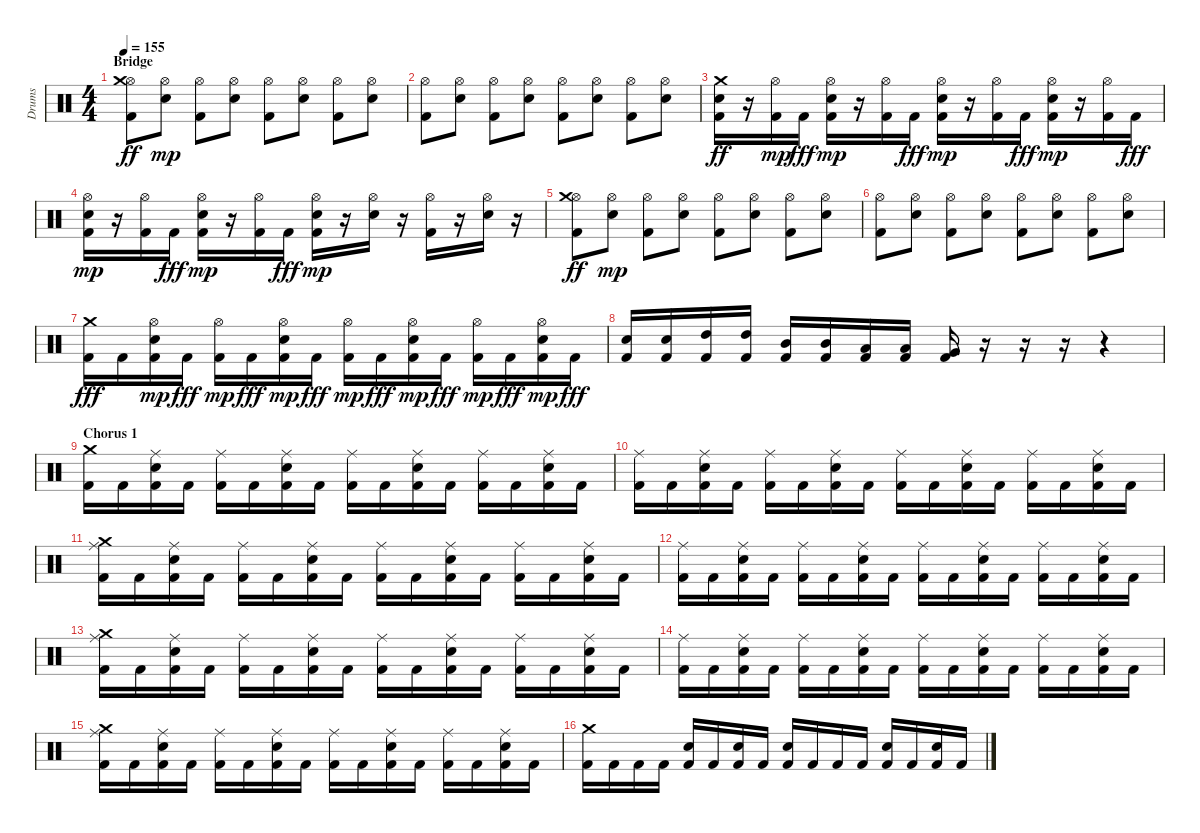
\track ("Drums" "Drums") {instrument percussion}
\staff {score}
\articulation defaults
\ts (4 4)
\section ("" "Bridge")
\tempo 155
\clef neutral
\ks c
("Kick (hit) 2" "Hi-Hat (open)" "Crash medium (hit)").8{dy ff} ("Hi-Hat (open)" "Snare (hit) 2").8{dy mp} ("Kick (hit) 2" "Hi-Hat (open)").8 ("Hi-Hat (open)" "Snare (hit) 2").8 ("Kick (hit) 2" "Hi-Hat (open)").8 ("Hi-Hat (open)" "Snare (hit) 2").8 ("Kick (hit) 2" "Hi-Hat (open)").8 ("Hi-Hat (open)" "Snare (hit) 2").8 |
("Kick (hit) 2" "Hi-Hat (open)").8 ("Hi-Hat (open)" "Snare (hit) 2").8 ("Kick (hit) 2" "Hi-Hat (open)").8 ("Hi-Hat (open)" "Snare (hit) 2").8 ("Kick (hit) 2" "Hi-Hat (open)").8 ("Hi-Hat (open)" "Snare (hit) 2").8 ("Kick (hit) 2" "Hi-Hat (open)").8 ("Hi-Hat (open)" "Snare (hit) 2").8 |
("Kick (hit) 2" "Snare (hit) 2" "Crash medium (hit)").16{dy ff} r.16 ("Kick (hit) 2" "Hi-Hat (open)").16{dy mp} "Kick (hit) 2".16{dy fff} ("Kick (hit) 2" "Hi-Hat (open)" "Snare (hit) 2").16{dy mp} r.16 ("Kick (hit) 2" "Hi-Hat (open)").16 "Kick (hit) 2".16{dy fff} ("Kick (hit) 2" "Hi-Hat (open)" "Snare (hit) 2").16{dy mp} r.16 ("Kick (hit) 2" "Hi-Hat (open)").16 "Kick (hit) 2".16{dy fff} ("Kick (hit) 2" "Hi-Hat (open)" "Snare (hit) 2").16{dy mp} r.16 ("Kick (hit) 2" "Hi-Hat (open)").16 "Kick (hit) 2".16{dy fff} |
("Kick (hit) 2" "Hi-Hat (open)" "Snare (hit) 2").16{dy mp} r.16 ("Kick (hit) 2" "Hi-Hat (open)").16 "Kick (hit) 2".16{dy fff} ("Kick (hit) 2" "Hi-Hat (open)" "Snare (hit) 2").16{dy mp} r.16 ("Kick (hit) 2" "Hi-Hat (open)").16 "Kick (hit) 2".16{dy fff} ("Kick (hit) 2" "Hi-Hat (open)" "Snare (hit) 2").16{dy mp} r.16 ("Hi-Hat (open)" "Snare (hit) 2").16 r.16 ("Kick (hit) 2" "Hi-Hat (open)").16 r.16 ("Hi-Hat (open)" "Snare (hit) 2").16 r.16 |
("Kick (hit) 2" "Hi-Hat (open)" "Crash medium (hit)").8{dy ff} ("Hi-Hat (open)" "Snare (hit) 2").8{dy mp} ("Kick (hit) 2" "Hi-Hat (open)").8 ("Hi-Hat (open)" "Snare (hit) 2").8 ("Kick (hit) 2" "Hi-Hat (open)").8 ("Hi-Hat (open)" "Snare (hit) 2").8 ("Kick (hit) 2" "Hi-Hat (open)").8 ("Hi-Hat (open)" "Snare (hit) 2").8 |
("Kick (hit) 2" "Hi-Hat (open)").8 ("Hi-Hat (open)" "Snare (hit) 2").8 ("Kick (hit) 2" "Hi-Hat (open)").8 ("Hi-Hat (open)" "Snare (hit) 2").8 ("Kick (hit) 2" "Hi-Hat (open)").8 ("Hi-Hat (open)" "Snare (hit) 2").8 ("Kick (hit) 2" "Hi-Hat (open)").8 ("Hi-Hat (open)" "Snare (hit) 2").8 |
("Kick (hit) 2" "Crash medium (hit)").16{dy fff} "Kick (hit) 2".16 ("Kick (hit) 2" "Hi-Hat (open)" "Snare (hit) 2").16{dy mp} "Kick (hit) 2".16{dy fff} ("Kick (hit) 2" "Hi-Hat (open)").16{dy mp} "Kick (hit) 2".16{dy fff} ("Kick (hit) 2" "Hi-Hat (open)" "Snare (hit) 2").16{dy mp} "Kick (hit) 2".16{dy fff} ("Kick (hit) 2" "Hi-Hat (open)").16{dy mp} "Kick (hit) 2".16{dy fff} ("Kick (hit) 2" "Hi-Hat (open)" "Snare (hit) 2").16{dy mp} "Kick (hit) 2".16{dy fff} ("Kick (hit) 2" "Hi-Hat (open)").16{dy mp} "Kick (hit) 2".16{dy fff} ("Kick (hit) 2" "Hi-Hat (open)" "Snare (hit) 2").16{dy mp} "Kick (hit) 2".16{dy fff} |
("Kick (hit) 2" "Snare (hit) 2").16 ("Kick (hit) 2" "Snare (hit) 2").16 ("Kick (hit) 2" "High Tom (hit)").16 ("Kick (hit) 2" "High Tom (hit)").16 ("Kick (hit) 2" "Mid Tom (hit)").16 ("Kick (hit) 2" "Mid Tom (hit)").16 ("Kick (hit) 2" "Low Tom (hit)").16 ("Kick (hit) 2" "Low Tom (hit)").16 ("Kick (hit) 2" "Very Low Tom (hit)").16 r.16 r.16 r.16 r.4 |
\section ("" "Chorus 1")
("Kick (hit) 2" "Crash medium (hit)").16 "Kick (hit) 2".16 ("Kick (hit) 2" "Ride (middle)" "Snare (hit) 2").16 "Kick (hit) 2".16 ("Kick (hit) 2" "Ride (middle)").16 "Kick (hit) 2".16 ("Kick (hit) 2" "Ride (middle)" "Snare (hit) 2").16 "Kick (hit) 2".16 ("Kick (hit) 2" "Ride (middle)").16 "Kick (hit) 2".16 ("Kick (hit) 2" "Ride (middle)" "Snare (hit) 2").16 "Kick (hit) 2".16 ("Kick (hit) 2" "Ride (middle)").16 "Kick (hit) 2".16 ("Kick (hit) 2" "Ride (middle)" "Snare (hit) 2").16 "Kick (hit) 2".16 |
("Kick (hit) 2" "Ride (middle)").16 "Kick (hit) 2".16 ("Kick (hit) 2" "Ride (middle)" "Snare (hit) 2").16 "Kick (hit) 2".16 ("Kick (hit) 2" "Ride (middle)").16 "Kick (hit) 2".16 ("Kick (hit) 2" "Ride (middle)" "Snare (hit) 2").16 "Kick (hit) 2".16 ("Kick (hit) 2" "Ride (middle)").16 "Kick (hit) 2".16 ("Kick (hit) 2" "Ride (middle)" "Snare (hit) 2").16 "Kick (hit) 2".16 ("Kick (hit) 2" "Ride (middle)").16 "Kick (hit) 2".16 ("Kick (hit) 2" "Ride (middle)" "Snare (hit) 2").16 "Kick (hit) 2".16 |
("Kick (hit) 2" "Ride (middle)" "Crash medium (hit)").16 "Kick (hit) 2".16 ("Kick (hit) 2" "Ride (middle)" "Snare (hit) 2").16 "Kick (hit) 2".16 ("Kick (hit) 2" "Ride (middle)").16 "Kick (hit) 2".16 ("Kick (hit) 2" "Ride (middle)" "Snare (hit) 2").16 "Kick (hit) 2".16 ("Kick (hit) 2" "Ride (middle)").16 "Kick (hit) 2".16 ("Kick (hit) 2" "Ride (middle)" "Snare (hit) 2").16 "Kick (hit) 2".16 ("Kick (hit) 2" "Ride (middle)").16 "Kick (hit) 2".16 ("Kick (hit) 2" "Ride (middle)" "Snare (hit) 2").16 "Kick (hit) 2".16 |
("Kick (hit) 2" "Ride (middle)").16 "Kick (hit) 2".16 ("Kick (hit) 2" "Ride (middle)" "Snare (hit) 2").16 "Kick (hit) 2".16 ("Kick (hit) 2" "Ride (middle)").16 "Kick (hit) 2".16 ("Kick (hit) 2" "Ride (middle)" "Snare (hit) 2").16 "Kick (hit) 2".16 ("Kick (hit) 2" "Ride (middle)").16 "Kick (hit) 2".16 ("Kick (hit) 2" "Ride (middle)" "Snare (hit) 2").16 "Kick (hit) 2".16 ("Kick (hit) 2" "Ride (middle)").16 "Kick (hit) 2".16 ("Kick (hit) 2" "Ride (middle)" "Snare (hit) 2").16 "Kick (hit) 2".16 |
("Kick (hit) 2" "Ride (middle)" "Crash medium (hit)").16 "Kick (hit) 2".16 ("Kick (hit) 2" "Ride (middle)" "Snare (hit) 2").16 "Kick (hit) 2".16 ("Kick (hit) 2" "Ride (middle)").16 "Kick (hit) 2".16 ("Kick (hit) 2" "Ride (middle)" "Snare (hit) 2").16 "Kick (hit) 2".16 ("Kick (hit) 2" "Ride (middle)").16 "Kick (hit) 2".16 ("Kick (hit) 2" "Ride (middle)" "Snare (hit) 2").16 "Kick (hit) 2".16 ("Kick (hit) 2" "Ride (middle)").16 "Kick (hit) 2".16 ("Kick (hit) 2" "Ride (middle)" "Snare (hit) 2").16 "Kick (hit) 2".16 |
("Kick (hit) 2" "Ride (middle)").16 "Kick (hit) 2".16 ("Kick (hit) 2" "Ride (middle)" "Snare (hit) 2").16 "Kick (hit) 2".16 ("Kick (hit) 2" "Ride (middle)").16 "Kick (hit) 2".16 ("Kick (hit) 2" "Ride (middle)" "Snare (hit) 2").16 "Kick (hit) 2".16 ("Kick (hit) 2" "Ride (middle)").16 "Kick (hit) 2".16 ("Kick (hit) 2" "Ride (middle)" "Snare (hit) 2").16 "Kick (hit) 2".16 ("Kick (hit) 2" "Ride (middle)").16 "Kick (hit) 2".16 ("Kick (hit) 2" "Ride (middle)" "Snare (hit) 2").16 "Kick (hit) 2".16 |
("Kick (hit) 2" "Ride (middle)" "Crash medium (hit)").16 "Kick (hit) 2".16 ("Kick (hit) 2" "Ride (middle)" "Snare (hit) 2").16 "Kick (hit) 2".16 ("Kick (hit) 2" "Ride (middle)").16 "Kick (hit) 2".16 ("Kick (hit) 2" "Ride (middle)" "Snare (hit) 2").16 "Kick (hit) 2".16 ("Kick (hit) 2" "Ride (middle)").16 "Kick (hit) 2".16 ("Kick (hit) 2" "Ride (middle)" "Snare (hit) 2").16 "Kick (hit) 2".16 ("Kick (hit) 2" "Ride (middle)").16 "Kick (hit) 2".16 ("Kick (hit) 2" "Ride (middle)" "Snare (hit) 2").16 "Kick (hit) 2".16 |
("Kick (hit) 2" "Crash medium (hit)").16 "Kick (hit) 2".16 "Kick (hit) 2".16 "Kick (hit) 2".16 ("Kick (hit) 2" "Snare (hit) 2").16 "Kick (hit) 2".16 ("Kick (hit) 2" "Snare (hit) 2").16 "Kick (hit) 2".16 ("Kick (hit) 2" "Snare (hit) 2").16 "Kick (hit) 2".16 "Kick (hit) 2".16 "Kick (hit) 2".16 ("Kick (hit) 2" "Snare (hit) 2").16 "Kick (hit) 2".16 ("Kick (hit) 2" "Snare (hit) 2").16 "Kick (hit) 2".16
